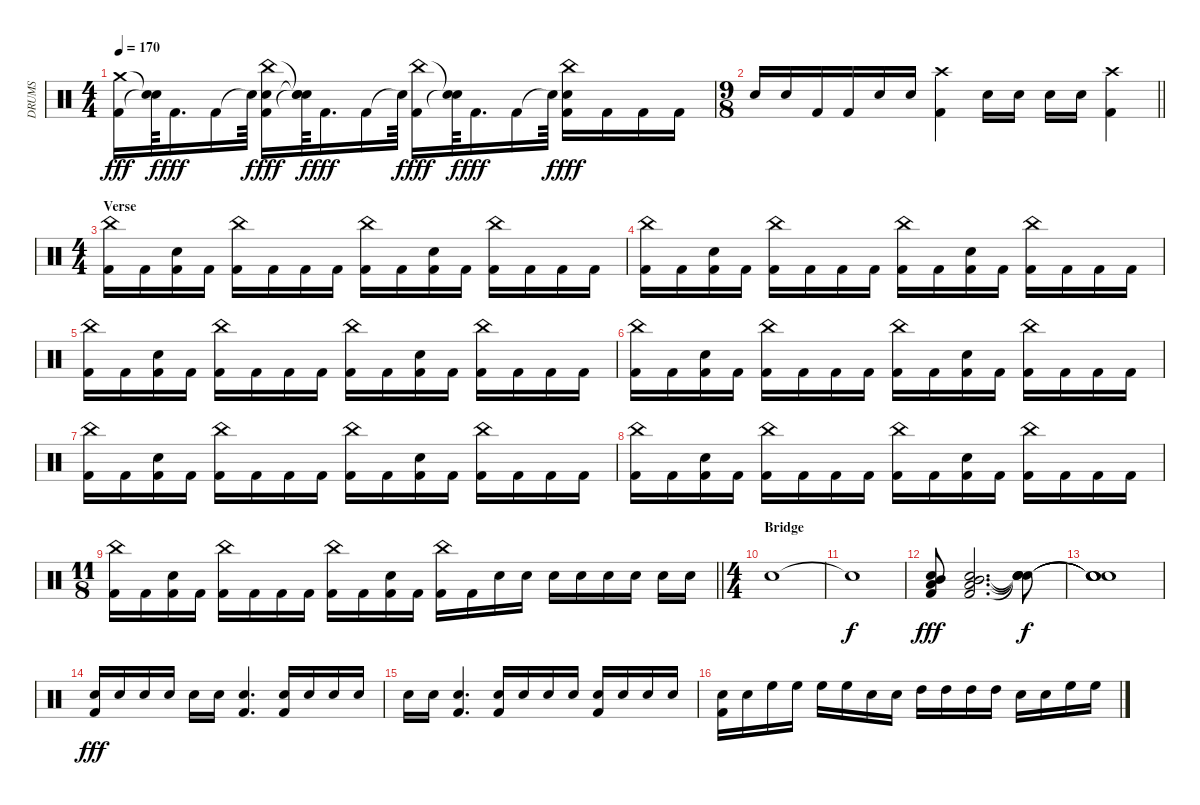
\track ("DRUMS" "DRUMS") {instrument percussion}
\staff {score}
\articulation defaults
\ts (4 4)
\tempo 170
\clef neutral
\ks c
("Kick (hit) 2" "Crash medium (hit)").16{dy fff} ("Snare (hit)"{t} "Snare (hit)"{t}).64{dy f} "Kick (hit) 2".16{d dy fff} "Kick (hit) 2".16 "Snare (hit)"{t}.64{dy f} ("China (hit)" "Snare (hit) 2" "Kick (hit) 2").16{dy fff} ("Snare (hit)"{t} "Snare (hit)"{t} "Snare (hit)"{t}).64{dy f} "Kick (hit) 2".16{d dy fff} "Kick (hit) 2".16 "Snare (hit)"{t}.64{dy f} ("China (hit)" "Kick (hit) 2").16{dy fff} ("Snare (hit)"{t} "Snare (hit)"{t}).64{dy f} "Kick (hit) 2".16{d dy fff} "Kick (hit) 2".16 "Snare (hit)"{t}.64{dy f} ("Kick (hit) 2" "China (hit)" "Snare (hit) 2").16{dy fff} "Kick (hit) 2".16 "Kick (hit) 2".16 "Kick (hit) 2".16 |
\ts (9 8)
\barLineRight lightlight "Snare (hit) 2".16 "Snare (hit) 2".16 "Kick (hit) 2".16 "Kick (hit) 2".16 "Snare (hit) 2".16 "Snare (hit) 2".16
("Kick (hit) 2" "Crash high (hit)").4 "Snare (hit) 2".16 "Snare (hit) 2".16 "Snare (hit) 2".16 "Snare (hit) 2".16 ("Kick (hit) 2" "Crash high (hit)").4 |
\ts (4 4)
\section ("" "Verse")
("China (hit)" "Kick (hit) 2").16 "Kick (hit) 2".16 ("Kick (hit) 2" "Snare (hit) 2").16 "Kick (hit) 2".16 ("China (hit)" "Kick (hit) 2").16 "Kick (hit) 2".16 "Kick (hit) 2".16 "Kick (hit) 2".16 ("Kick (hit) 2" "China (hit)").16 "Kick (hit) 2".16 ("Snare (hit) 2" "Kick (hit) 2").16 "Kick (hit) 2".16 ("Kick (hit) 2" "China (hit)").16 "Kick (hit) 2".16 "Kick (hit) 2".16 "Kick (hit) 2".16 |
("China (hit)" "Kick (hit) 2").16 "Kick (hit) 2".16 ("Kick (hit) 2" "Snare (hit) 2").16 "Kick (hit) 2".16 ("China (hit)" "Kick (hit) 2").16 "Kick (hit) 2".16 "Kick (hit) 2".16 "Kick (hit) 2".16 ("Kick (hit) 2" "China (hit)").16 "Kick (hit) 2".16 ("Snare (hit) 2" "Kick (hit) 2").16 "Kick (hit) 2".16 ("Kick (hit) 2" "China (hit)").16 "Kick (hit) 2".16 "Kick (hit) 2".16 "Kick (hit) 2".16 |
("China (hit)" "Kick (hit) 2").16 "Kick (hit) 2".16 ("Kick (hit) 2" "Snare (hit) 2").16 "Kick (hit) 2".16 ("China (hit)" "Kick (hit) 2").16 "Kick (hit) 2".16 "Kick (hit) 2".16 "Kick (hit) 2".16 ("Kick (hit) 2" "China (hit)").16 "Kick (hit) 2".16 ("Snare (hit) 2" "Kick (hit) 2").16 "Kick (hit) 2".16 ("Kick (hit) 2" "China (hit)").16 "Kick (hit) 2".16 "Kick (hit) 2".16 "Kick (hit) 2".16 |
("Kick (hit) 2" "China (hit)").16 "Kick (hit) 2".16 ("Snare (hit) 2" "Kick (hit) 2").16 "Kick (hit) 2".16 ("Kick (hit) 2" "China (hit)").16 "Kick (hit) 2".16 "Kick (hit) 2".16 "Kick (hit) 2".16 ("Kick (hit) 2" "China (hit)").16 "Kick (hit) 2".16 ("Kick (hit) 2" "Snare (hit) 2").16 "Kick (hit) 2".16 ("Kick (hit) 2" "China (hit)").16 "Kick (hit) 2".16 "Kick (hit) 2".16 "Kick (hit) 2".16 |
("Kick (hit) 2" "China (hit)").16 "Kick (hit) 2".16 ("Snare (hit) 2" "Kick (hit) 2").16 "Kick (hit) 2".16 ("Kick (hit) 2" "China (hit)").16 "Kick (hit) 2".16 "Kick (hit) 2".16 "Kick (hit) 2".16 ("Kick (hit) 2" "China (hit)").16 "Kick (hit) 2".16 ("Kick (hit) 2" "Snare (hit) 2").16 "Kick (hit) 2".16 ("Kick (hit) 2" "China (hit)").16 "Kick (hit) 2".16 "Kick (hit) 2".16 "Kick (hit) 2".16 |
("Kick (hit) 2" "China (hit)").16 "Kick (hit) 2".16 ("Snare (hit) 2" "Kick (hit) 2").16 "Kick (hit) 2".16 ("Kick (hit) 2" "China (hit)").16 "Kick (hit) 2".16 "Kick (hit) 2".16 "Kick (hit) 2".16 ("Kick (hit) 2" "China (hit)").16 "Kick (hit) 2".16 ("Kick (hit) 2" "Snare (hit) 2").16 "Kick (hit) 2".16 ("Kick (hit) 2" "China (hit)").16 "Kick (hit) 2".16 "Kick (hit) 2".16 "Kick (hit) 2".16 |
\ts (11 8)
\barLineRight lightlight
("Kick (hit) 2" "China (hit)").16 "Kick (hit) 2".16 ("Kick (hit) 2" "Snare (hit) 2").16 "Kick (hit) 2".16 ("China (hit)" "Kick (hit) 2").16 "Kick (hit) 2".16 "Kick (hit) 2".16 "Kick (hit) 2".16 ("Kick (hit) 2" "China (hit)").16 "Kick (hit) 2".16 ("Snare (hit) 2" "Kick (hit) 2").16 "Kick (hit) 2".16 ("Kick (hit) 2" "China (hit)").16 "Kick (hit) 2".16 "Snare (hit) 2".16 "Snare (hit) 2".16 "Snare (hit) 2".16 "Snare (hit) 2".16 "Snare (hit) 2".16 "Snare (hit) 2".16 "Snare (hit) 2".16 "Snare (hit) 2".16 |
\ts (4 4)
\section ("" "Bridge")
"Snare (hit) 2".1 |
"Snare (hit)"{t}.1{dy f} |
("Kick (hit) 2" "Low Tom (hit)" "Snare (hit) 2" "Mid Tom (hit)").8{dy fff} ("Snare (hit) 2" "Mid Tom (hit)" "Low Tom (hit)" "Kick (hit) 2").2{d} ("Snare (hit)"{t} "Snare (hit)"{t} "Snare (hit)"{t} "Snare (hit)"{t}).8{dy f} |
("Snare (hit)"{t} "Snare (hit)"{t} "Snare (hit)"{t} "Snare (hit)"{t}).1 |
("Snare (hit) 2" "Kick (hit) 2").16{dy fff} "Snare (hit) 2".16 "Snare (hit) 2".16 "Snare (hit) 2".16 "Snare (hit) 2".16 "Snare (hit) 2".16 ("Snare (hit) 2" "Kick (hit) 2").4{d} ("Kick (hit) 2" "Snare (hit) 2").16 "Snare (hit) 2".16 "Snare (hit) 2".16 "Snare (hit) 2".16 |
"Snare (hit) 2".16 "Snare (hit) 2".16 ("Snare (hit) 2" "Kick (hit) 2").4{d} ("Kick (hit) 2" "Snare (hit) 2").16 "Snare (hit) 2".16 "Snare (hit) 2".16 "Snare (hit) 2".16 ("Kick (hit) 2" "Snare (hit) 2").16 "Snare (hit) 2".16 "Snare (hit) 2".16 "Snare (hit) 2".16 |
("Snare (hit) 2" "Kick (hit) 2").16 "Snare (hit) 2".16 "High Floor Tom (hit)".16 "High Floor Tom (hit)".16 "High Floor Tom (hit)".16 "High Floor Tom (hit)".16 "Snare (hit) 2".16 "Snare (hit) 2".16 "High Tom (hit)".16 "High Tom (hit)".16 "High Tom (hit)".16 "High Tom (hit)".16 "Snare (hit) 2".16 "Snare (hit) 2".16 "High Floor Tom (hit)".16 "High Floor Tom (hit)".16
